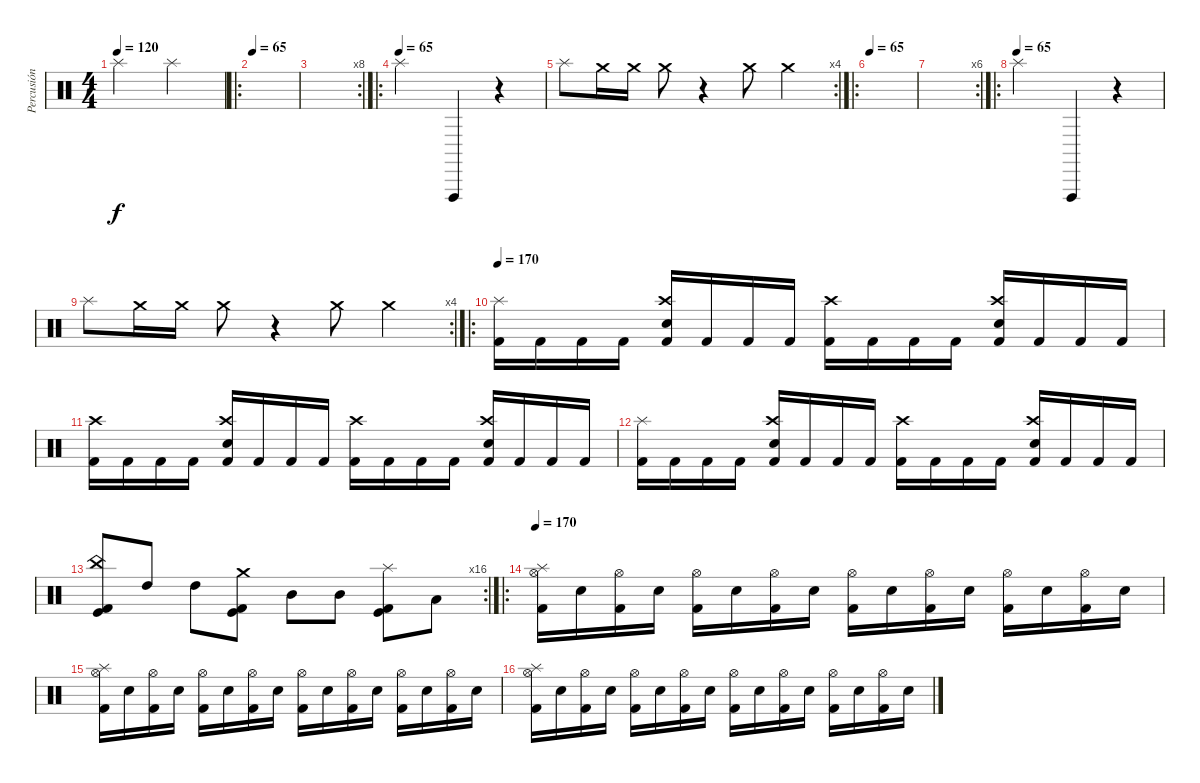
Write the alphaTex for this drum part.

\track ("Percusión CARLOS DARK" "Percusión ") {instrument percussion}
\staff {score}
\articulation defaults
\ts (4 4)
\tempo 120
\clef neutral
\ks c "Splash (hit)".2{dy f} "Splash (hit)".2
|
\ro
\tempo 65
|
\rc 8
|
\ro
\tempo (65)
"Splash (hit)".2 "Vibraslap (hit)".4 r.4 |
\rc 4 "Splash (hit)".8 "Crash medium (hit)".16 "Crash medium (hit)".16 "Crash medium (hit)".8
r.4 "Crash medium (hit)".8 "Crash medium (hit)".4 |
\ro
\tempo 65
|
\rc 6
|
\ro
\tempo (65)
"Splash (hit)".2 "Vibraslap (hit)".4 r.4 |
\rc 4 "Splash (hit)".8 "Crash medium (hit)".16 "Crash medium (hit)".16 "Crash medium (hit)".8
r.4 "Crash medium (hit)".8 "Crash medium (hit)".4 |
\ro
\tempo 170
("Splash (hit)" "Kick (hit) 2").16 "Kick (hit) 2".16 "Kick (hit) 2".16 "Kick (hit) 2".16 ("Crash high (hit)" "Snare (hit) 2" "Kick (hit) 2").16 "Kick (hit) 2".16 "Kick (hit) 2".16 "Kick (hit) 2".16 ("Crash high (hit)" "Kick (hit) 2").16 "Kick (hit) 2".16 "Kick (hit) 2".16 "Kick (hit) 2".16 ("Crash high (hit)" "Snare (hit) 2" "Kick (hit) 2").16 "Kick (hit) 2".16 "Kick (hit) 2".16 "Kick (hit) 2".16 |
("Crash high (hit)" "Kick (hit) 2").16 "Kick (hit) 2".16 "Kick (hit) 2".16 "Kick (hit) 2".16 ("Crash high (hit)" "Snare (hit) 2" "Kick (hit) 2").16 "Kick (hit) 2".16 "Kick (hit) 2".16 "Kick (hit) 2".16 ("Crash high (hit)" "Kick (hit) 2").16 "Kick (hit) 2".16 "Kick (hit) 2".16 "Kick (hit) 2".16 ("Crash high (hit)" "Snare (hit) 2" "Kick (hit) 2").16 "Kick (hit) 2".16 "Kick (hit) 2".16 "Kick (hit) 2".16 |
("Splash (hit)" "Kick (hit) 2").16 "Kick (hit) 2".16 "Kick (hit) 2".16 "Kick (hit) 2".16 ("Crash high (hit)" "Snare (hit) 2" "Kick (hit) 2").16 "Kick (hit) 2".16 "Kick (hit) 2".16 "Kick (hit) 2".16 ("Crash high (hit)" "Kick (hit) 2").16 "Kick (hit) 2".16 "Kick (hit) 2".16 "Kick (hit) 2".16 ("Crash high (hit)" "Snare (hit) 2" "Kick (hit) 2").16 "Kick (hit) 2".16 "Kick (hit) 2".16 "Kick (hit) 2".16 |
\rc 16
("China (hit)" "Kick (hit) 2" "Kick (hit)").8 "High Tom (hit)".8 "High Tom (hit)".8 ("Crash medium (hit)" "Kick (hit) 2" "Kick (hit)").8 "Mid Tom (hit)".8 "Mid Tom (hit)".8 ("Splash (hit)" "Kick (hit) 2" "Kick (hit)").8 "Low Tom (hit)".8 |
\ro
\tempo 170
("Splash (hit)" "Hi-Hat (open)" "Kick (hit) 2").16 "Electric Snare (hit)".16 ("Hi-Hat (open)" "Kick (hit) 2").16 "Electric Snare (hit)".16 ("Hi-Hat (open)" "Kick (hit) 2").16 "Electric Snare (hit)".16 ("Hi-Hat (open)" "Kick (hit) 2").16 "Electric Snare (hit)".16 ("Hi-Hat (open)" "Kick (hit) 2").16 "Electric Snare (hit)".16 ("Hi-Hat (open)" "Kick (hit) 2").16 "Electric Snare (hit)".16 ("Hi-Hat (open)" "Kick (hit) 2").16 "Electric Snare (hit)".16 ("Hi-Hat (open)" "Kick (hit) 2").16 "Electric Snare (hit)".16 |
("Splash (hit)" "Hi-Hat (open)" "Kick (hit) 2").16 "Electric Snare (hit)".16 ("Hi-Hat (open)" "Kick (hit) 2").16 "Electric Snare (hit)".16 ("Hi-Hat (open)" "Kick (hit) 2").16 "Electric Snare (hit)".16 ("Hi-Hat (open)" "Kick (hit) 2").16 "Electric Snare (hit)".16 ("Hi-Hat (open)" "Kick (hit) 2").16 "Electric Snare (hit)".16 ("Hi-Hat (open)" "Kick (hit) 2").16 "Electric Snare (hit)".16 ("Hi-Hat (open)" "Kick (hit) 2").16 "Electric Snare (hit)".16 ("Hi-Hat (open)" "Kick (hit) 2").16 "Electric Snare (hit)".16 |
("Splash (hit)" "Hi-Hat (open)" "Kick (hit) 2").16 "Electric Snare (hit)".16 ("Hi-Hat (open)" "Kick (hit) 2").16 "Electric Snare (hit)".16 ("Hi-Hat (open)" "Kick (hit) 2").16 "Electric Snare (hit)".16 ("Hi-Hat (open)" "Kick (hit) 2").16 "Electric Snare (hit)".16 ("Hi-Hat (open)" "Kick (hit) 2").16 "Electric Snare (hit)".16 ("Hi-Hat (open)" "Kick (hit) 2").16 "Electric Snare (hit)".16 ("Hi-Hat (open)" "Kick (hit) 2").16 "Electric Snare (hit)".16 ("Hi-Hat (open)" "Kick (hit) 2").16 "Electric Snare (hit)".16
